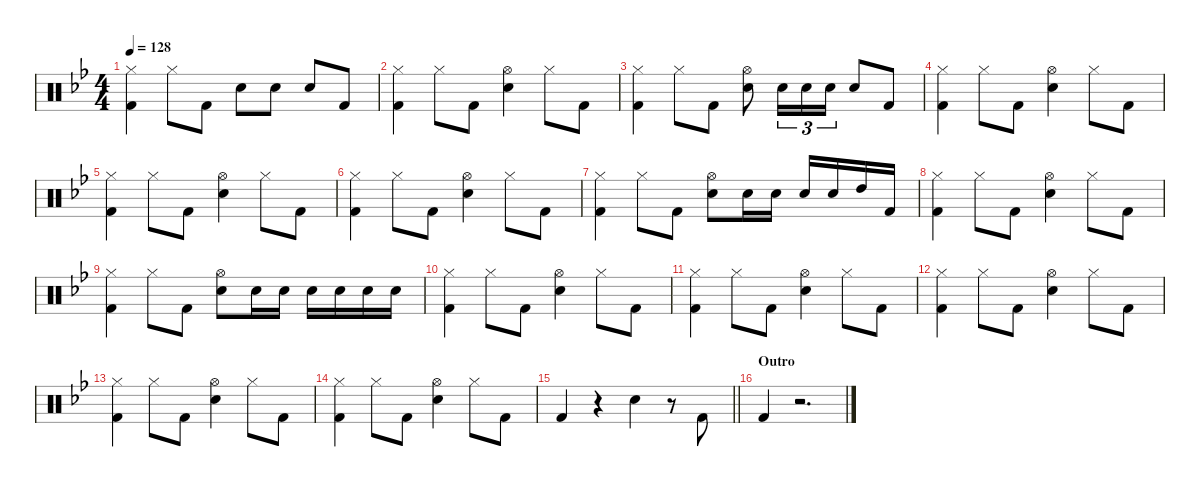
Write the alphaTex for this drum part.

\defaultSystemsLayout 4
\hideDynamics
\bracketExtendMode groupsimilarinstruments
\singleTrackTrackNamePolicy hidden
\multiTrackTrackNamePolicy hidden
\firstSystemTrackNameMode fullname
\firstSystemTrackNameOrientation horizontal
\otherSystemsTrackNameOrientation horizontal
\extendBarLines
\track ("Drums" "drm.") {instrument percussion}
\staff {score}
\articulation defaults
\ts (4 4)
\tempo 128
\clef neutral
\ks bb
("Hi-Hat (closed)"{acc forcenatural} "Kick (hit) 2"{acc forcenatural}).4{dy f beam Down} "Hi-Hat (closed)"{acc forcenatural}.8{beam Down} "Kick (hit) 2"{acc forcenatural}.8{beam Down} "Snare (hit) 2"{acc forcenatural}.8{beam Down} "Snare (hit) 2"{acc forcenatural}.8{beam Down} "Snare (hit) 2"{acc forcenatural}.8{beam Up} "Kick (hit) 2"{acc forcenatural}.8{beam Up} |
("Hi-Hat (closed)"{acc forcenatural} "Kick (hit) 2"{acc forcenatural}).4{beam Down} "Hi-Hat (closed)"{acc forcenatural}.8{beam Down} "Kick (hit) 2"{acc forcenatural}.8{beam Down} ("Hi-Hat (open)"{acc forcenatural} "Snare (hit) 2"{acc forcenatural}).4{beam Down} "Hi-Hat (closed)"{acc forcenatural}.8{beam Down} "Kick (hit) 2"{acc forcenatural}.8{beam Down} |
("Hi-Hat (closed)"{acc forcenatural} "Kick (hit) 2"{acc forcenatural}).4{beam Down} "Hi-Hat (closed)"{acc forcenatural}.8{beam Down} "Kick (hit) 2"{acc forcenatural}.8{beam Down} ("Hi-Hat (open)"{acc forcenatural} "Snare (hit) 2"{acc forcenatural}).8{beam Down} "Snare (hit) 2"{acc forcenatural}.16{tu (3 2) beam Down} "Snare (hit) 2"{acc forcenatural}.16{tu (3 2) beam Down} "Snare (hit) 2"{acc forcenatural}.16{tu (3 2) beam Down} "Snare (hit) 2"{acc forcenatural}.8{beam Up} "Kick (hit) 2"{acc forcenatural}.8{beam Up} |
("Hi-Hat (closed)"{acc forcenatural} "Kick (hit) 2"{acc forcenatural}).4{beam Down} "Hi-Hat (closed)"{acc forcenatural}.8{beam Down} "Kick (hit) 2"{acc forcenatural}.8{beam Down} ("Hi-Hat (open)"{acc forcenatural} "Snare (hit) 2"{acc forcenatural}).4{beam Down} "Hi-Hat (closed)"{acc forcenatural}.8{beam Down} "Kick (hit) 2"{acc forcenatural}.8{beam Down} |
("Hi-Hat (closed)"{acc forcenatural} "Kick (hit) 2"{acc forcenatural}).4{beam Down} "Hi-Hat (closed)"{acc forcenatural}.8{beam Down} "Kick (hit) 2"{acc forcenatural}.8{beam Down} ("Hi-Hat (open)"{acc forcenatural} "Snare (hit) 2"{acc forcenatural}).4{beam Down} "Hi-Hat (closed)"{acc forcenatural}.8{beam Down} "Kick (hit) 2"{acc forcenatural}.8{beam Down} |
("Hi-Hat (closed)"{acc forcenatural} "Kick (hit) 2"{acc forcenatural}).4{beam Down} "Hi-Hat (closed)"{acc forcenatural}.8{beam Down} "Kick (hit) 2"{acc forcenatural}.8{beam Down} ("Hi-Hat (open)"{acc forcenatural} "Snare (hit) 2"{acc forcenatural}).4{beam Down} "Hi-Hat (closed)"{acc forcenatural}.8{beam Down} "Kick (hit) 2"{acc forcenatural}.8{beam Down} |
("Hi-Hat (closed)"{acc forcenatural} "Kick (hit) 2"{acc forcenatural}).4{beam Down} "Hi-Hat (closed)"{acc forcenatural}.8{beam Down} "Kick (hit) 2"{acc forcenatural}.8{beam Down} ("Hi-Hat (open)"{acc forcenatural} "Snare (hit) 2"{acc forcenatural}).8{beam Down} "Snare (hit) 2"{acc forcenatural}.16{beam Down} "Snare (hit) 2"{acc forcenatural}.16{beam Down} "Snare (hit) 2"{acc forcenatural}.16{beam Up} "Snare (hit) 2"{acc forcenatural}.16{beam Up} "High Tom (hit)"{acc forcenatural}.16{beam Up} "Kick (hit) 2"{acc forcenatural}.16{beam Up} |
("Hi-Hat (closed)"{acc forcenatural} "Kick (hit) 2"{acc forcenatural}).4{beam Down} "Hi-Hat (closed)"{acc forcenatural}.8{beam Down} "Kick (hit) 2"{acc forcenatural}.8{beam Down} ("Hi-Hat (open)"{acc forcenatural} "Snare (hit) 2"{acc forcenatural}).4{beam Down} "Hi-Hat (closed)"{acc forcenatural}.8{beam Down} "Kick (hit) 2"{acc forcenatural}.8{beam Down} |
("Hi-Hat (closed)"{acc forcenatural} "Kick (hit) 2"{acc forcenatural}).4{beam Down} "Hi-Hat (closed)"{acc forcenatural}.8{beam Down} "Kick (hit) 2"{acc forcenatural}.8{beam Down} ("Hi-Hat (open)"{acc forcenatural} "Snare (hit) 2"{acc forcenatural}).8{beam Down} "Snare (hit) 2"{acc forcenatural}.16{beam Down} "Snare (hit) 2"{acc forcenatural}.16{beam Down} "Snare (hit) 2"{acc forcenatural}.16{beam Down} "Snare (hit) 2"{acc forcenatural}.16{beam Down} "Snare (hit) 2"{acc forcenatural}.16{beam Down} "Snare (hit) 2"{acc forcenatural}.16{beam Down} |
("Hi-Hat (closed)"{acc forcenatural} "Kick (hit) 2"{acc forcenatural}).4{beam Down} "Hi-Hat (closed)"{acc forcenatural}.8{beam Down} "Kick (hit) 2"{acc forcenatural}.8{beam Down} ("Hi-Hat (open)"{acc forcenatural} "Snare (hit) 2"{acc forcenatural}).4{beam Down} "Hi-Hat (closed)"{acc forcenatural}.8{beam Down} "Kick (hit) 2"{acc forcenatural}.8{beam Down} |
("Hi-Hat (closed)"{acc forcenatural} "Kick (hit) 2"{acc forcenatural}).4{beam Down} "Hi-Hat (closed)"{acc forcenatural}.8{beam Down} "Kick (hit) 2"{acc forcenatural}.8{beam Down} ("Hi-Hat (open)"{acc forcenatural} "Snare (hit) 2"{acc forcenatural}).4{beam Down} "Hi-Hat (closed)"{acc forcenatural}.8{beam Down} "Kick (hit) 2"{acc forcenatural}.8{beam Down} |
("Hi-Hat (closed)"{acc forcenatural} "Kick (hit) 2"{acc forcenatural}).4{beam Down} "Hi-Hat (closed)"{acc forcenatural}.8{beam Down} "Kick (hit) 2"{acc forcenatural}.8{beam Down} ("Hi-Hat (open)"{acc forcenatural} "Snare (hit) 2"{acc forcenatural}).4{beam Down} "Hi-Hat (closed)"{acc forcenatural}.8{beam Down} "Kick (hit) 2"{acc forcenatural}.8{beam Down} |
("Hi-Hat (closed)"{acc forcenatural} "Kick (hit) 2"{acc forcenatural}).4{beam Down} "Hi-Hat (closed)"{acc forcenatural}.8{beam Down} "Kick (hit) 2"{acc forcenatural}.8{beam Down} ("Hi-Hat (open)"{acc forcenatural} "Snare (hit) 2"{acc forcenatural}).4{beam Down} "Hi-Hat (closed)"{acc forcenatural}.8{beam Down} "Kick (hit) 2"{acc forcenatural}.8{beam Down} |
("Hi-Hat (closed)"{acc forcenatural} "Kick (hit) 2"{acc forcenatural}).4{beam Down} "Hi-Hat (closed)"{acc forcenatural}.8{beam Down} "Kick (hit) 2"{acc forcenatural}.8{beam Down} ("Hi-Hat (open)"{acc forcenatural} "Snare (hit) 2"{acc forcenatural}).4{beam Down} "Hi-Hat (closed)"{acc forcenatural}.8{beam Down} "Kick (hit) 2"{acc forcenatural}.8{beam Down} |
\barLineRight lightlight "Kick (hit) 2"{acc forcenatural}.4{beam Up}
r.4{beam Up} "Snare (hit) 2"{acc forcenatural}.4{beam Down} r.8{beam Down} "Kick (hit) 2"{acc forcenatural}.8{beam Up} |
\section ("" "Outro")
"Kick (hit) 2"{acc forcenatural}.4{beam Up} r.2{d beam Up}
